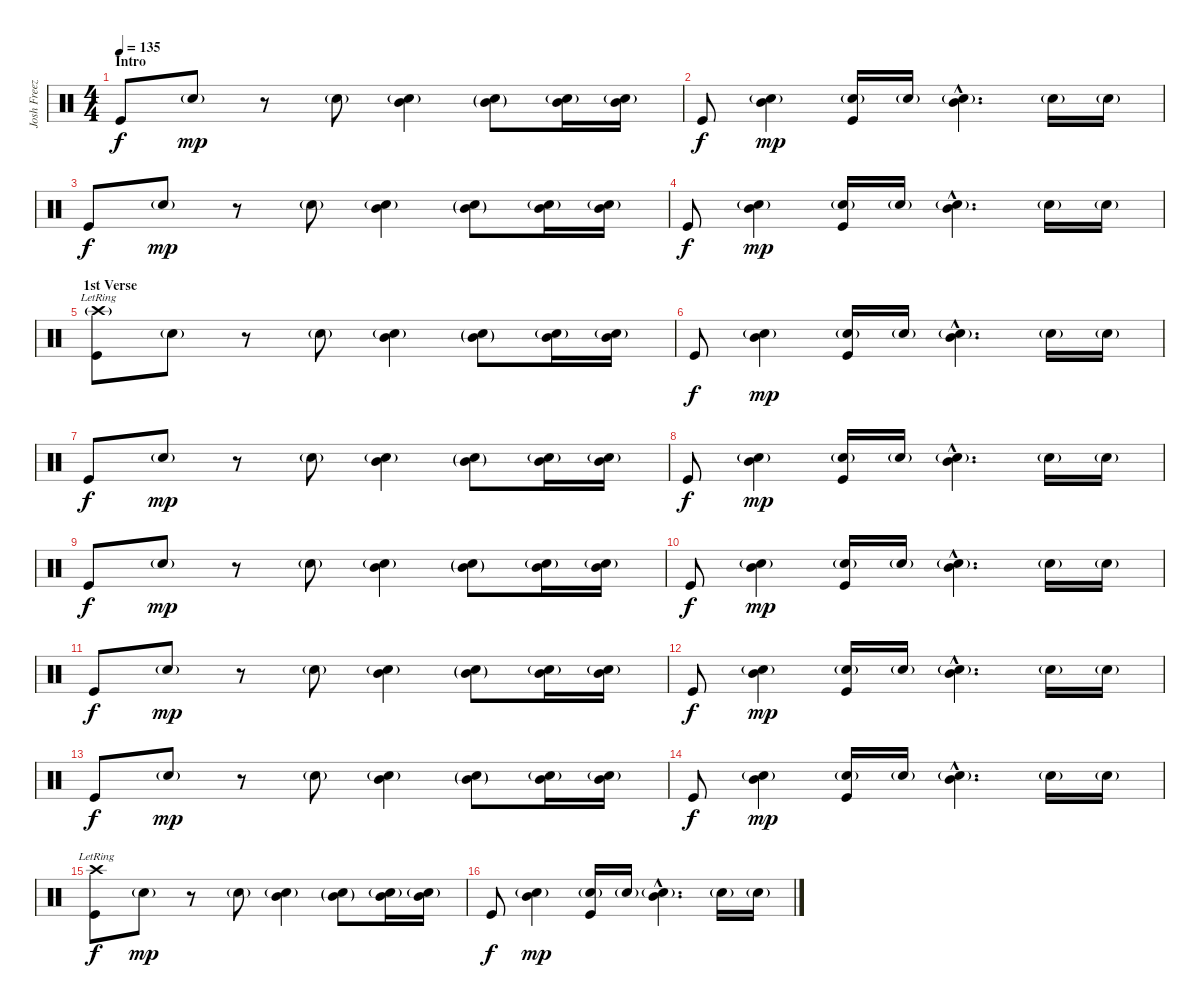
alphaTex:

\track ("Josh Freeze" "Josh Freez") {instrument percussion}
\staff {score}
\articulation defaults
\ts (4 4)
\section ("" "Intro")
\tempo 135
\clef neutral
\ks c "Kick (hit)".8{dy f} "Electric Snare (hit)"{g}.8{dy mp}
r.8 "Electric Snare (hit)"{g}.8 ("Mid Tom (hit)" "Electric Snare (hit)"{g}).4 ("Mid Tom (hit)"{g} "Electric Snare (hit)"{g}).8 ("Mid Tom (hit)" "Electric Snare (hit)"{g}).16 ("Mid Tom (hit)" "Electric Snare (hit)"{g}).16 |
"Kick (hit)".8{dy f} ("Mid Tom (hit)" "Electric Snare (hit)"{g}).4{dy mp} ("Electric Snare (hit)"{g} "Kick (hit)").16 "Electric Snare (hit)"{g}.16 ("Mid Tom (hit)"{hac} "Electric Snare (hit)"{g hac}).4{d} "Electric Snare (hit)"{g}.16 "Electric Snare (hit)"{g}.16 |
"Kick (hit)".8{dy f} "Electric Snare (hit)"{g}.8{dy mp} r.8 "Electric Snare (hit)"{g}.8 ("Mid Tom (hit)" "Electric Snare (hit)"{g}).4 ("Mid Tom (hit)"{g} "Electric Snare (hit)"{g}).8 ("Mid Tom (hit)" "Electric Snare (hit)"{g}).16 ("Mid Tom (hit)" "Electric Snare (hit)"{g}).16 |
"Kick (hit)".8{dy f} ("Mid Tom (hit)" "Electric Snare (hit)"{g}).4{dy mp} ("Electric Snare (hit)"{g} "Kick (hit)").16 "Electric Snare (hit)"{g}.16 ("Mid Tom (hit)"{hac} "Electric Snare (hit)"{g hac}).4{d} "Electric Snare (hit)"{g}.16 "Electric Snare (hit)"{g}.16 |
\section ("" "1st Verse")
("Crash high (hit)"{g lr} "Kick (hit)").8 "Electric Snare (hit)"{g}.8 r.8 "Electric Snare (hit)"{g}.8 ("Mid Tom (hit)" "Electric Snare (hit)"{g}).4 ("Mid Tom (hit)"{g} "Electric Snare (hit)"{g}).8 ("Mid Tom (hit)" "Electric Snare (hit)"{g}).16 ("Mid Tom (hit)" "Electric Snare (hit)"{g}).16 |
"Kick (hit)".8{dy f} ("Mid Tom (hit)" "Electric Snare (hit)"{g}).4{dy mp} ("Electric Snare (hit)"{g} "Kick (hit)").16 "Electric Snare (hit)"{g}.16 ("Mid Tom (hit)"{hac} "Electric Snare (hit)"{g hac}).4{d} "Electric Snare (hit)"{g}.16 "Electric Snare (hit)"{g}.16 |
"Kick (hit)".8{dy f} "Electric Snare (hit)"{g}.8{dy mp} r.8 "Electric Snare (hit)"{g}.8 ("Mid Tom (hit)" "Electric Snare (hit)"{g}).4 ("Mid Tom (hit)"{g} "Electric Snare (hit)"{g}).8 ("Mid Tom (hit)" "Electric Snare (hit)"{g}).16 ("Mid Tom (hit)" "Electric Snare (hit)"{g}).16 |
"Kick (hit)".8{dy f} ("Mid Tom (hit)" "Electric Snare (hit)"{g}).4{dy mp} ("Electric Snare (hit)"{g} "Kick (hit)").16 "Electric Snare (hit)"{g}.16 ("Mid Tom (hit)"{hac} "Electric Snare (hit)"{g hac}).4{d} "Electric Snare (hit)"{g}.16 "Electric Snare (hit)"{g}.16 |
"Kick (hit)".8{dy f} "Electric Snare (hit)"{g}.8{dy mp} r.8 "Electric Snare (hit)"{g}.8 ("Mid Tom (hit)" "Electric Snare (hit)"{g}).4 ("Mid Tom (hit)"{g} "Electric Snare (hit)"{g}).8 ("Mid Tom (hit)" "Electric Snare (hit)"{g}).16 ("Mid Tom (hit)" "Electric Snare (hit)"{g}).16 |
"Kick (hit)".8{dy f} ("Mid Tom (hit)" "Electric Snare (hit)"{g}).4{dy mp} ("Electric Snare (hit)"{g} "Kick (hit)").16 "Electric Snare (hit)"{g}.16 ("Mid Tom (hit)"{hac} "Electric Snare (hit)"{g hac}).4{d} "Electric Snare (hit)"{g}.16 "Electric Snare (hit)"{g}.16 |
"Kick (hit)".8{dy f} "Electric Snare (hit)"{g}.8{dy mp} r.8 "Electric Snare (hit)"{g}.8 ("Mid Tom (hit)" "Electric Snare (hit)"{g}).4 ("Mid Tom (hit)"{g} "Electric Snare (hit)"{g}).8 ("Mid Tom (hit)" "Electric Snare (hit)"{g}).16 ("Mid Tom (hit)" "Electric Snare (hit)"{g}).16 |
"Kick (hit)".8{dy f} ("Mid Tom (hit)" "Electric Snare (hit)"{g}).4{dy mp} ("Electric Snare (hit)"{g} "Kick (hit)").16 "Electric Snare (hit)"{g}.16 ("Mid Tom (hit)"{hac} "Electric Snare (hit)"{g hac}).4{d} "Electric Snare (hit)"{g}.16 "Electric Snare (hit)"{g}.16 |
"Kick (hit)".8{dy f} "Electric Snare (hit)"{g}.8{dy mp} r.8 "Electric Snare (hit)"{g}.8 ("Mid Tom (hit)" "Electric Snare (hit)"{g}).4 ("Mid Tom (hit)"{g} "Electric Snare (hit)"{g}).8 ("Mid Tom (hit)" "Electric Snare (hit)"{g}).16 ("Mid Tom (hit)" "Electric Snare (hit)"{g}).16 |
"Kick (hit)".8{dy f} ("Mid Tom (hit)" "Electric Snare (hit)"{g}).4{dy mp} ("Electric Snare (hit)"{g} "Kick (hit)").16 "Electric Snare (hit)"{g}.16 ("Mid Tom (hit)"{hac} "Electric Snare (hit)"{g hac}).4{d} "Electric Snare (hit)"{g}.16 "Electric Snare (hit)"{g}.16 |
("Crash high (hit)"{lr} "Kick (hit)").8{dy f} "Electric Snare (hit)"{g}.8{dy mp} r.8 "Electric Snare (hit)"{g}.8 ("Mid Tom (hit)" "Electric Snare (hit)"{g}).4 ("Mid Tom (hit)"{g} "Electric Snare (hit)"{g}).8 ("Mid Tom (hit)" "Electric Snare (hit)"{g}).16 ("Mid Tom (hit)" "Electric Snare (hit)"{g}).16 |
"Kick (hit)".8{dy f} ("Mid Tom (hit)" "Electric Snare (hit)"{g}).4{dy mp} ("Electric Snare (hit)"{g} "Kick (hit)").16 "Electric Snare (hit)"{g}.16 ("Mid Tom (hit)"{hac} "Electric Snare (hit)"{g hac}).4{d} "Electric Snare (hit)"{g}.16 "Electric Snare (hit)"{g}.16
